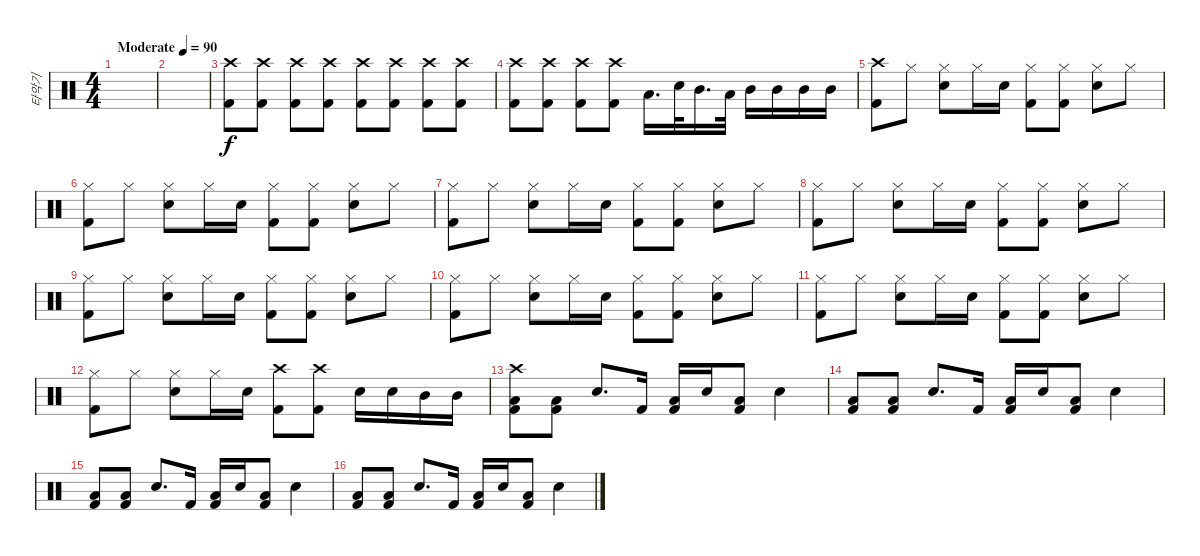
\track ("타악기" "타악기") {instrument percussion}
\staff {score}
\articulation defaults
\ts (4 4)
\tempo (90 "Moderate")
\clef neutral
\ks c
|
|
("Crash high (hit)" "Kick (hit) 2").8 ("Crash high (hit)" "Kick (hit) 2").8 ("Crash high (hit)" "Kick (hit) 2").8 ("Crash high (hit)" "Kick (hit) 2").8 ("Crash high (hit)" "Kick (hit) 2").8 ("Crash high (hit)" "Kick (hit) 2").8 ("Crash high (hit)" "Kick (hit) 2").8 ("Crash high (hit)" "Kick (hit) 2").8 |
("Crash high (hit)" "Kick (hit) 2").8 ("Crash high (hit)" "Kick (hit) 2").8 ("Crash high (hit)" "Kick (hit) 2").8 ("Crash high (hit)" "Kick (hit) 2").8 "Low Tom (hit)".16{d} "Electric Snare (hit)".32 "Mid Tom (hit)".16{d} "Low Tom (hit)".32 "Mid Tom (hit)".16 "Mid Tom (hit)".16 "Mid Tom (hit)".16 "Mid Tom (hit)".16 |
("Crash high (hit)" "Kick (hit) 2").8 "Hi-Hat (closed)".8 ("Hi-Hat (closed)" "Electric Snare (hit)").8 "Hi-Hat (closed)".16 "Electric Snare (hit)".16 ("Hi-Hat (closed)" "Kick (hit) 2").8 ("Hi-Hat (closed)" "Kick (hit) 2").8 ("Hi-Hat (closed)" "Electric Snare (hit)").8 "Hi-Hat (closed)".8 |
("Kick (hit) 2" "Hi-Hat (closed)").8 "Hi-Hat (closed)".8 ("Hi-Hat (closed)" "Electric Snare (hit)").8 "Hi-Hat (closed)".16 "Electric Snare (hit)".16 ("Hi-Hat (closed)" "Kick (hit) 2").8 ("Hi-Hat (closed)" "Kick (hit) 2").8 ("Hi-Hat (closed)" "Electric Snare (hit)").8 "Hi-Hat (closed)".8 |
("Hi-Hat (closed)" "Kick (hit) 2").8 "Hi-Hat (closed)".8 ("Hi-Hat (closed)" "Electric Snare (hit)").8 "Hi-Hat (closed)".16 "Electric Snare (hit)".16 ("Hi-Hat (closed)" "Kick (hit) 2").8 ("Hi-Hat (closed)" "Kick (hit) 2").8 ("Hi-Hat (closed)" "Electric Snare (hit)").8 "Hi-Hat (closed)".8 |
("Hi-Hat (closed)" "Kick (hit) 2").8 "Hi-Hat (closed)".8 ("Hi-Hat (closed)" "Electric Snare (hit)").8 "Hi-Hat (closed)".16 "Electric Snare (hit)".16 ("Hi-Hat (closed)" "Kick (hit) 2").8 ("Hi-Hat (closed)" "Kick (hit) 2").8 ("Hi-Hat (closed)" "Electric Snare (hit)").8 "Hi-Hat (closed)".8 |
("Hi-Hat (closed)" "Kick (hit) 2").8 "Hi-Hat (closed)".8 ("Hi-Hat (closed)" "Electric Snare (hit)").8 "Hi-Hat (closed)".16 "Electric Snare (hit)".16 ("Hi-Hat (closed)" "Kick (hit) 2").8 ("Hi-Hat (closed)" "Kick (hit) 2").8 ("Hi-Hat (closed)" "Electric Snare (hit)").8 "Hi-Hat (closed)".8 |
("Hi-Hat (closed)" "Kick (hit) 2").8 "Hi-Hat (closed)".8 ("Hi-Hat (closed)" "Electric Snare (hit)").8 "Hi-Hat (closed)".16 "Electric Snare (hit)".16 ("Hi-Hat (closed)" "Kick (hit) 2").8 ("Hi-Hat (closed)" "Kick (hit) 2").8 ("Hi-Hat (closed)" "Electric Snare (hit)").8 "Hi-Hat (closed)".8 |
("Hi-Hat (closed)" "Kick (hit) 2").8 "Hi-Hat (closed)".8 ("Hi-Hat (closed)" "Electric Snare (hit)").8 "Hi-Hat (closed)".16 "Electric Snare (hit)".16 ("Hi-Hat (closed)" "Kick (hit) 2").8 ("Hi-Hat (closed)" "Kick (hit) 2").8 ("Hi-Hat (closed)" "Electric Snare (hit)").8 "Hi-Hat (closed)".8 |
("Hi-Hat (closed)" "Kick (hit) 2").8 "Hi-Hat (closed)".8 ("Hi-Hat (closed)" "Electric Snare (hit)").8 "Hi-Hat (closed)".16 "Electric Snare (hit)".16 ("Crash high (hit)" "Kick (hit) 2").8 ("Crash high (hit)" "Kick (hit) 2").8 "Electric Snare (hit)".16 "Electric Snare (hit)".16 "Mid Tom (hit)".16 "Mid Tom (hit)".16 |
("Crash high (hit)" "Kick (hit) 2" "Low Floor Tom (hit)").8 ("Kick (hit) 2" "Low Floor Tom (hit)").8 "Electric Snare (hit)".8{d} "Kick (hit) 2".16 ("Kick (hit) 2" "Low Floor Tom (hit)").16 "Electric Snare (hit)".16 ("Kick (hit) 2" "Low Floor Tom (hit)").8 "Electric Snare (hit)".4 |
("Kick (hit) 2" "Low Floor Tom (hit)").8 ("Kick (hit) 2" "Low Floor Tom (hit)").8 "Electric Snare (hit)".8{d} "Kick (hit) 2".16 ("Kick (hit) 2" "Low Floor Tom (hit)").16 "Electric Snare (hit)".16 ("Kick (hit) 2" "Low Floor Tom (hit)").8 "Electric Snare (hit)".4 |
("Kick (hit) 2" "Low Floor Tom (hit)").8 ("Kick (hit) 2" "Low Floor Tom (hit)").8 "Electric Snare (hit)".8{d} "Kick (hit) 2".16 ("Kick (hit) 2" "Low Floor Tom (hit)").16 "Electric Snare (hit)".16 ("Kick (hit) 2" "Low Floor Tom (hit)").8 "Electric Snare (hit)".4 |
("Kick (hit) 2" "Low Floor Tom (hit)").8 ("Kick (hit) 2" "Low Floor Tom (hit)").8 "Electric Snare (hit)".8{d} "Kick (hit) 2".16 ("Kick (hit) 2" "Low Floor Tom (hit)").16 "Electric Snare (hit)".16 ("Kick (hit) 2" "Low Floor Tom (hit)").8 "Electric Snare (hit)".4
